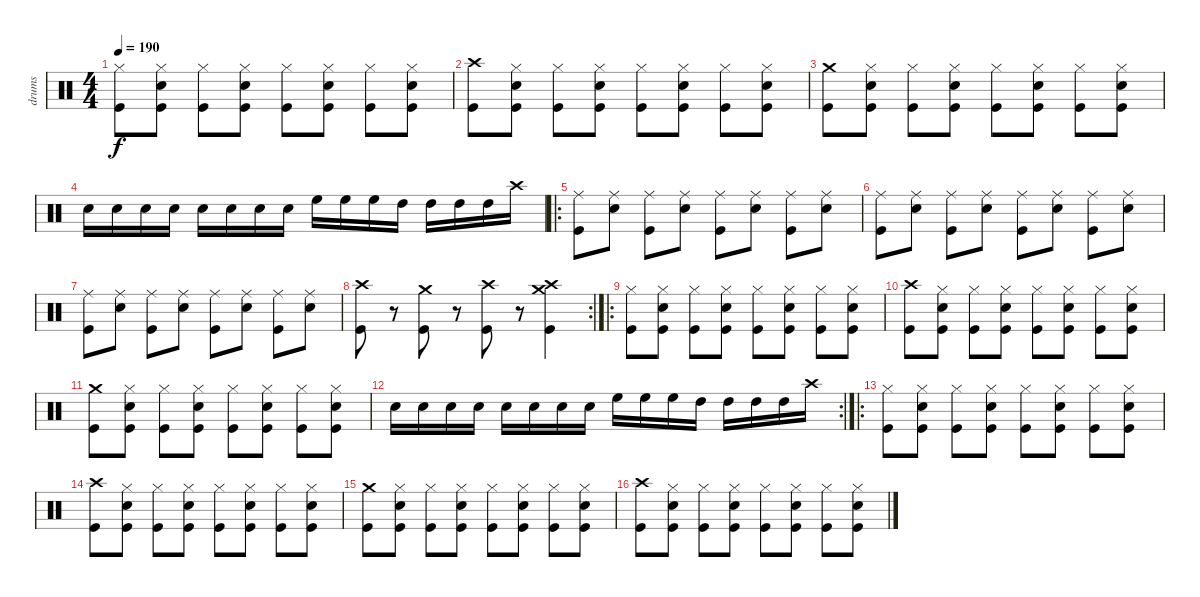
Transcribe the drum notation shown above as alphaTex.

\track ("drums" "drums") {instrument percussion}
\staff {score}
\articulation defaults
\ts (4 4)
\tempo 190
\clef neutral
\ks c
("Hi-Hat (closed)" "Kick (hit)").8{dy f} ("Hi-Hat (closed)" "Snare (hit) 2" "Kick (hit)").8 ("Hi-Hat (closed)" "Kick (hit)").8 ("Hi-Hat (closed)" "Snare (hit) 2" "Kick (hit)").8 ("Hi-Hat (closed)" "Kick (hit)").8 ("Hi-Hat (closed)" "Snare (hit) 2" "Kick (hit)").8 ("Hi-Hat (closed)" "Kick (hit)").8 ("Hi-Hat (closed)" "Snare (hit) 2" "Kick (hit)").8 |
("Crash high (hit)" "Kick (hit)").8 ("Hi-Hat (closed)" "Snare (hit) 2" "Kick (hit)").8 ("Hi-Hat (closed)" "Kick (hit)").8 ("Hi-Hat (closed)" "Snare (hit) 2" "Kick (hit)").8 ("Hi-Hat (closed)" "Kick (hit)").8 ("Hi-Hat (closed)" "Snare (hit) 2" "Kick (hit)").8 ("Hi-Hat (closed)" "Kick (hit)").8 ("Hi-Hat (closed)" "Snare (hit) 2" "Kick (hit)").8 |
("Crash medium (hit)" "Kick (hit)").8 ("Hi-Hat (closed)" "Snare (hit) 2" "Kick (hit)").8 ("Hi-Hat (closed)" "Kick (hit)").8 ("Hi-Hat (closed)" "Snare (hit) 2" "Kick (hit)").8 ("Hi-Hat (closed)" "Kick (hit)").8 ("Hi-Hat (closed)" "Snare (hit) 2" "Kick (hit)").8 ("Hi-Hat (closed)" "Kick (hit)").8 ("Hi-Hat (closed)" "Snare (hit) 2" "Kick (hit)").8 |
"Snare (hit) 2".16 "Snare (hit) 2".16 "Snare (hit) 2".16 "Snare (hit) 2".16 "Snare (hit) 2".16 "Snare (hit) 2".16 "Snare (hit) 2".16 "Snare (hit) 2".16 "High Floor Tom (hit)".16 "High Floor Tom (hit)".16 "High Floor Tom (hit)".16 "High Tom (hit)".16 "High Tom (hit)".16 "High Tom (hit)".16 "High Tom (hit)".16 "Crash high (hit)".16 |
\ro
("Ride (middle)" "Kick (hit)").8 ("Ride (middle)" "Snare (hit) 2").8 ("Ride (middle)" "Kick (hit)").8 ("Ride (middle)" "Snare (hit) 2").8 ("Ride (middle)" "Kick (hit)").8 ("Ride (middle)" "Snare (hit) 2").8 ("Ride (middle)" "Kick (hit)").8 ("Ride (middle)" "Snare (hit) 2").8 |
("Ride (middle)" "Kick (hit)").8 ("Ride (middle)" "Snare (hit) 2").8 ("Ride (middle)" "Kick (hit)").8 ("Ride (middle)" "Snare (hit) 2").8 ("Ride (middle)" "Kick (hit)").8 ("Ride (middle)" "Snare (hit) 2").8 ("Ride (middle)" "Kick (hit)").8 ("Ride (middle)" "Snare (hit) 2").8 |
("Ride (middle)" "Kick (hit)").8 ("Ride (middle)" "Snare (hit) 2").8 ("Ride (middle)" "Kick (hit)").8 ("Ride (middle)" "Snare (hit) 2").8 ("Ride (middle)" "Kick (hit)").8 ("Ride (middle)" "Snare (hit) 2").8 ("Ride (middle)" "Kick (hit)").8 ("Ride (middle)" "Snare (hit) 2").8 |
\rc 2
("Crash high (hit)" "Kick (hit)").8 r.8 ("Crash medium (hit)" "Kick (hit)").8 r.8 ("Crash high (hit)" "Kick (hit)").8 r.8 ("Crash high (hit)" "Crash medium (hit)" "Kick (hit)").4 |
\ro
("Hi-Hat (closed)" "Kick (hit)").8 ("Hi-Hat (closed)" "Snare (hit) 2" "Kick (hit)").8 ("Hi-Hat (closed)" "Kick (hit)").8 ("Hi-Hat (closed)" "Snare (hit) 2" "Kick (hit)").8 ("Hi-Hat (closed)" "Kick (hit)").8 ("Hi-Hat (closed)" "Snare (hit) 2" "Kick (hit)").8 ("Hi-Hat (closed)" "Kick (hit)").8 ("Hi-Hat (closed)" "Snare (hit) 2" "Kick (hit)").8 |
("Crash high (hit)" "Kick (hit)").8 ("Hi-Hat (closed)" "Snare (hit) 2" "Kick (hit)").8 ("Hi-Hat (closed)" "Kick (hit)").8 ("Hi-Hat (closed)" "Snare (hit) 2" "Kick (hit)").8 ("Hi-Hat (closed)" "Kick (hit)").8 ("Hi-Hat (closed)" "Snare (hit) 2" "Kick (hit)").8 ("Hi-Hat (closed)" "Kick (hit)").8 ("Hi-Hat (closed)" "Snare (hit) 2" "Kick (hit)").8 |
("Crash medium (hit)" "Kick (hit)").8 ("Hi-Hat (closed)" "Snare (hit) 2" "Kick (hit)").8 ("Hi-Hat (closed)" "Kick (hit)").8 ("Hi-Hat (closed)" "Snare (hit) 2" "Kick (hit)").8 ("Hi-Hat (closed)" "Kick (hit)").8 ("Hi-Hat (closed)" "Snare (hit) 2" "Kick (hit)").8 ("Hi-Hat (closed)" "Kick (hit)").8 ("Hi-Hat (closed)" "Snare (hit) 2" "Kick (hit)").8 |
\rc 2 "Snare (hit) 2".16 "Snare (hit) 2".16 "Snare (hit) 2".16 "Snare (hit) 2".16 "Snare (hit) 2".16 "Snare (hit) 2".16 "Snare (hit) 2".16 "Snare (hit) 2".16 "High Floor Tom (hit)".16 "High Floor Tom (hit)".16 "High Floor Tom (hit)".16 "High Tom (hit)".16 "High Tom (hit)".16 "High Tom (hit)".16 "High Tom (hit)".16 "Crash high (hit)".16
|
\ro
("Hi-Hat (closed)" "Kick (hit)").8 ("Hi-Hat (closed)" "Snare (hit) 2" "Kick (hit)").8 ("Hi-Hat (closed)" "Kick (hit)").8 ("Hi-Hat (closed)" "Snare (hit) 2" "Kick (hit)").8 ("Hi-Hat (closed)" "Kick (hit)").8 ("Hi-Hat (closed)" "Snare (hit) 2" "Kick (hit)").8 ("Hi-Hat (closed)" "Kick (hit)").8 ("Hi-Hat (closed)" "Snare (hit) 2" "Kick (hit)").8 |
("Crash high (hit)" "Kick (hit)").8 ("Hi-Hat (closed)" "Snare (hit) 2" "Kick (hit)").8 ("Hi-Hat (closed)" "Kick (hit)").8 ("Hi-Hat (closed)" "Snare (hit) 2" "Kick (hit)").8 ("Hi-Hat (closed)" "Kick (hit)").8 ("Hi-Hat (closed)" "Snare (hit) 2" "Kick (hit)").8 ("Hi-Hat (closed)" "Kick (hit)").8 ("Hi-Hat (closed)" "Snare (hit) 2" "Kick (hit)").8 |
("Crash medium (hit)" "Kick (hit)").8 ("Hi-Hat (closed)" "Snare (hit) 2" "Kick (hit)").8 ("Hi-Hat (closed)" "Kick (hit)").8 ("Hi-Hat (closed)" "Snare (hit) 2" "Kick (hit)").8 ("Hi-Hat (closed)" "Kick (hit)").8 ("Hi-Hat (closed)" "Snare (hit) 2" "Kick (hit)").8 ("Hi-Hat (closed)" "Kick (hit)").8 ("Hi-Hat (closed)" "Snare (hit) 2" "Kick (hit)").8 |
("Crash high (hit)" "Kick (hit)").8 ("Hi-Hat (closed)" "Snare (hit) 2" "Kick (hit)").8 ("Hi-Hat (closed)" "Kick (hit)").8 ("Hi-Hat (closed)" "Snare (hit) 2" "Kick (hit)").8 ("Hi-Hat (closed)" "Kick (hit)").8 ("Hi-Hat (closed)" "Snare (hit) 2" "Kick (hit)").8 ("Hi-Hat (closed)" "Kick (hit)").8 ("Hi-Hat (closed)" "Snare (hit) 2" "Kick (hit)").8
